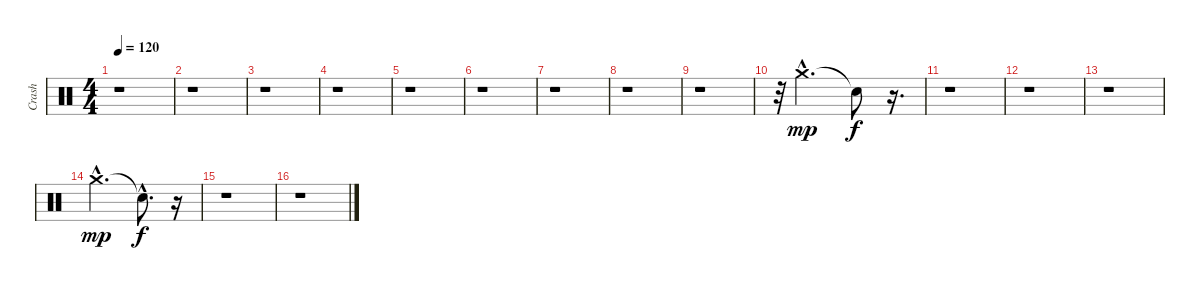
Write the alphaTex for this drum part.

\track ("Crash" "Crash") {instrument percussion}
\staff {score}
\articulation defaults
\ts (4 4)
\tempo 120
\clef neutral
\ks c
r.1{dy f} |
r.1 |
r.1 |
r.1 |
r.1 |
r.1 |
r.1 |
r.1 |
r.1 |
r.32 "Crash medium (hit)"{hac}.2{d dy mp} "Snare (hit)"{t}.8{dy f} r.16{d} |
r.1 |
r.1 |
r.1 |
"Crash medium (hit)"{hac}.2{d dy mp} "Snare (hit)"{hac t}.8{d dy f} r.16 |
r.1 |
r.1
